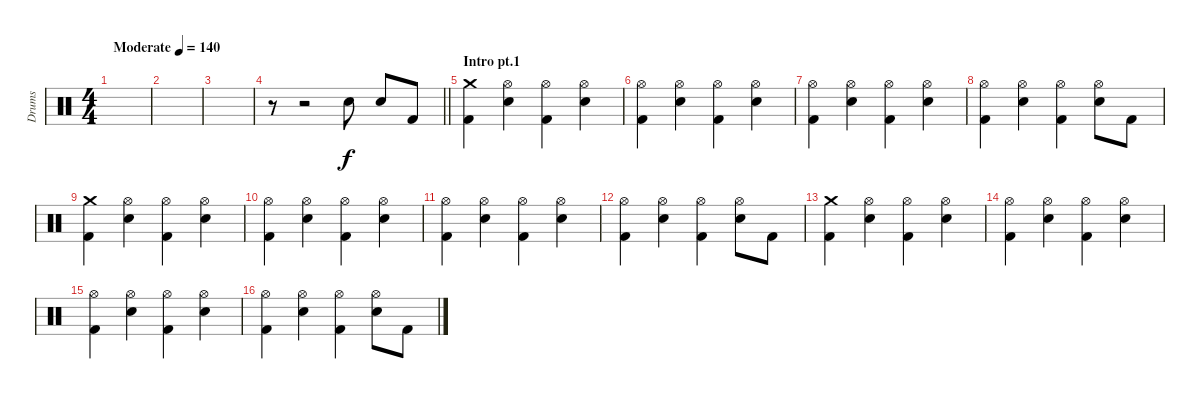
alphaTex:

\track ("Drums" "Drums") {instrument percussion}
\staff {score}
\articulation defaults
\ts (4 4)
\tempo (140 "Moderate")
\clef neutral
\ks c
|
|
|
\barLineRight lightlight
r.8 r.2 "Electric Snare (hit)".8 "Electric Snare (hit)".8 "Kick (hit) 2".8 |
\section ("" "Intro pt.1")
("Crash medium (hit)" "Kick (hit) 2").4 ("Hi-Hat (open)" "Electric Snare (hit)").4 ("Hi-Hat (open)" "Kick (hit) 2").4 ("Hi-Hat (open)" "Electric Snare (hit)").4 |
("Hi-Hat (open)" "Kick (hit) 2").4 ("Hi-Hat (open)" "Electric Snare (hit)").4 ("Hi-Hat (open)" "Kick (hit) 2").4 ("Hi-Hat (open)" "Electric Snare (hit)").4 |
("Hi-Hat (open)" "Kick (hit) 2").4 ("Hi-Hat (open)" "Electric Snare (hit)").4 ("Hi-Hat (open)" "Kick (hit) 2").4 ("Hi-Hat (open)" "Electric Snare (hit)").4 |
("Hi-Hat (open)" "Kick (hit) 2").4 ("Hi-Hat (open)" "Electric Snare (hit)").4 ("Hi-Hat (open)" "Kick (hit) 2").4 ("Hi-Hat (open)" "Electric Snare (hit)").8 "Kick (hit) 2".8 |
("Crash medium (hit)" "Kick (hit) 2").4 ("Hi-Hat (open)" "Electric Snare (hit)").4 ("Hi-Hat (open)" "Kick (hit) 2").4 ("Hi-Hat (open)" "Electric Snare (hit)").4 |
("Hi-Hat (open)" "Kick (hit) 2").4 ("Hi-Hat (open)" "Electric Snare (hit)").4 ("Hi-Hat (open)" "Kick (hit) 2").4 ("Hi-Hat (open)" "Electric Snare (hit)").4 |
("Hi-Hat (open)" "Kick (hit) 2").4 ("Hi-Hat (open)" "Electric Snare (hit)").4 ("Hi-Hat (open)" "Kick (hit) 2").4 ("Hi-Hat (open)" "Electric Snare (hit)").4 |
("Hi-Hat (open)" "Kick (hit) 2").4 ("Hi-Hat (open)" "Electric Snare (hit)").4 ("Hi-Hat (open)" "Kick (hit) 2").4 ("Hi-Hat (open)" "Electric Snare (hit)").8 "Kick (hit) 2".8 |
("Crash medium (hit)" "Kick (hit) 2").4 ("Hi-Hat (open)" "Electric Snare (hit)").4 ("Hi-Hat (open)" "Kick (hit) 2").4 ("Hi-Hat (open)" "Electric Snare (hit)").4 |
("Hi-Hat (open)" "Kick (hit) 2").4 ("Hi-Hat (open)" "Electric Snare (hit)").4 ("Hi-Hat (open)" "Kick (hit) 2").4 ("Hi-Hat (open)" "Electric Snare (hit)").4 |
("Hi-Hat (open)" "Kick (hit) 2").4 ("Hi-Hat (open)" "Electric Snare (hit)").4 ("Hi-Hat (open)" "Kick (hit) 2").4 ("Hi-Hat (open)" "Electric Snare (hit)").4 |
("Hi-Hat (open)" "Kick (hit) 2").4 ("Hi-Hat (open)" "Electric Snare (hit)").4 ("Hi-Hat (open)" "Kick (hit) 2").4 ("Hi-Hat (open)" "Electric Snare (hit)").8 "Kick (hit) 2".8
